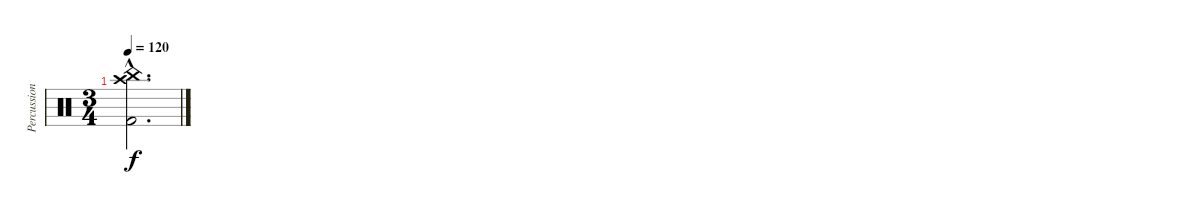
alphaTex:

\track ("Percussion" "Percussion") {instrument percussion}
\staff {score}
\articulation defaults
\ts (3 4)
\tempo 120
\clef neutral
\ks c
("China (hit)"{hac} "Crash high (hit)"{hac} "Kick (hit) 2"{hac}).2{d dy f}
